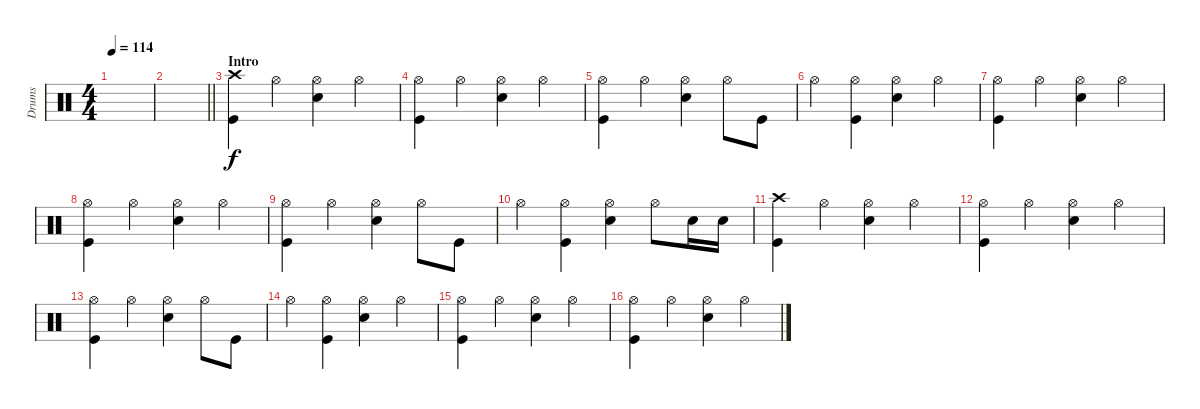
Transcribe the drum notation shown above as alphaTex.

\track ("Drums" "Drums") {instrument percussion}
\staff {score}
\articulation defaults
\ts (4 4)
\tempo 114
\clef neutral
\ks c
|
\barLineRight lightlight
|
\section ("" "Intro")
("Crash high (hit)" "Kick (hit)").4 "Hi-Hat (open)".4 ("Hi-Hat (open)" "Snare (hit) 2").4 "Hi-Hat (open)".4 |
("Hi-Hat (open)" "Kick (hit)").4 "Hi-Hat (open)".4 ("Hi-Hat (open)" "Snare (hit) 2").4 "Hi-Hat (open)".4 |
("Hi-Hat (open)" "Kick (hit)").4 "Hi-Hat (open)".4 ("Hi-Hat (open)" "Snare (hit) 2").4 "Hi-Hat (open)".8 "Kick (hit)".8 |
"Hi-Hat (open)".4 ("Hi-Hat (open)" "Kick (hit)").4 ("Hi-Hat (open)" "Snare (hit) 2").4 "Hi-Hat (open)".4 |
("Hi-Hat (open)" "Kick (hit)").4 "Hi-Hat (open)".4 ("Hi-Hat (open)" "Snare (hit) 2").4 "Hi-Hat (open)".4 |
("Hi-Hat (open)" "Kick (hit)").4 "Hi-Hat (open)".4 ("Hi-Hat (open)" "Snare (hit) 2").4 "Hi-Hat (open)".4 |
("Hi-Hat (open)" "Kick (hit)").4 "Hi-Hat (open)".4 ("Hi-Hat (open)" "Snare (hit) 2").4 "Hi-Hat (open)".8 "Kick (hit)".8 |
"Hi-Hat (open)".4 ("Hi-Hat (open)" "Kick (hit)").4 ("Hi-Hat (open)" "Snare (hit) 2").4 "Hi-Hat (open)".8 "Snare (hit) 2".16 "Snare (hit) 2".16 |
("Crash high (hit)" "Kick (hit)").4 "Hi-Hat (open)".4 ("Hi-Hat (open)" "Snare (hit) 2").4 "Hi-Hat (open)".4 |
("Hi-Hat (open)" "Kick (hit)").4 "Hi-Hat (open)".4 ("Hi-Hat (open)" "Snare (hit) 2").4 "Hi-Hat (open)".4 |
("Hi-Hat (open)" "Kick (hit)").4 "Hi-Hat (open)".4 ("Hi-Hat (open)" "Snare (hit) 2").4 "Hi-Hat (open)".8 "Kick (hit)".8 |
"Hi-Hat (open)".4 ("Hi-Hat (open)" "Kick (hit)").4 ("Hi-Hat (open)" "Snare (hit) 2").4 "Hi-Hat (open)".4 |
("Hi-Hat (open)" "Kick (hit)").4 "Hi-Hat (open)".4 ("Hi-Hat (open)" "Snare (hit) 2").4 "Hi-Hat (open)".4 |
("Hi-Hat (open)" "Kick (hit)").4 "Hi-Hat (open)".4 ("Hi-Hat (open)" "Snare (hit) 2").4 "Hi-Hat (open)".4
